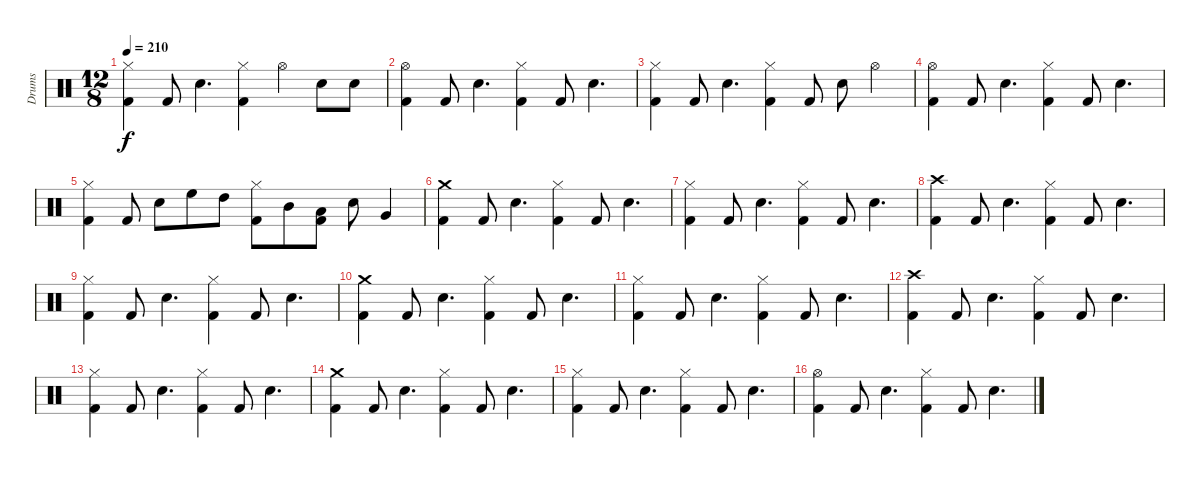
\track ("Drums" "Drums") {instrument percussion}
\staff {score}
\articulation defaults
\ts (12 8)
\tempo 210
\clef neutral
\ks c
("Kick (hit) 2" "Hi-Hat (closed)").4{dy f} "Kick (hit) 2".8 "Snare (hit) 2".4{d} ("Kick (hit) 2" "Hi-Hat (closed)").4 "Hi-Hat (open)".4 "Snare (hit) 2".8 "Snare (hit) 2".8 |
("Kick (hit) 2" "Hi-Hat (open)").4 "Kick (hit) 2".8 "Snare (hit) 2".4{d} ("Kick (hit) 2" "Hi-Hat (closed)").4 "Kick (hit) 2".8 "Snare (hit) 2".4{d} |
("Kick (hit) 2" "Hi-Hat (closed)").4 "Kick (hit) 2".8 "Snare (hit) 2".4{d} ("Kick (hit) 2" "Hi-Hat (closed)").4 "Kick (hit) 2".8 "Snare (hit) 2".8 "Hi-Hat (open)".4 |
("Kick (hit) 2" "Hi-Hat (open)").4 "Kick (hit) 2".8 "Snare (hit) 2".4{d} ("Kick (hit) 2" "Hi-Hat (closed)").4 "Kick (hit) 2".8 "Snare (hit) 2".4{d} |
("Kick (hit) 2" "Hi-Hat (closed)").4 "Kick (hit) 2".8 "Snare (hit) 2".8 "High Floor Tom (hit)".8 "High Tom (hit)".8 ("Kick (hit) 2" "Hi-Hat (closed)").8 "Mid Tom (hit)".8 ("Kick (hit) 2" "Low Tom (hit)").8 "Snare (hit) 2".8 "Very Low Tom (hit)".4 |
("Kick (hit) 2" "Crash medium (hit)").4 "Kick (hit) 2".8 "Snare (hit) 2".4{d} ("Kick (hit) 2" "Hi-Hat (closed)").4 "Kick (hit) 2".8 "Snare (hit) 2".4{d} |
("Kick (hit) 2" "Hi-Hat (closed)").4 "Kick (hit) 2".8 "Snare (hit) 2".4{d} ("Kick (hit) 2" "Hi-Hat (closed)").4 "Kick (hit) 2".8 "Snare (hit) 2".4{d} |
("Kick (hit) 2" "Crash high (hit)").4 "Kick (hit) 2".8 "Snare (hit) 2".4{d} ("Kick (hit) 2" "Hi-Hat (closed)").4 "Kick (hit) 2".8 "Snare (hit) 2".4{d} |
("Kick (hit) 2" "Hi-Hat (closed)").4 "Kick (hit) 2".8 "Snare (hit) 2".4{d} ("Kick (hit) 2" "Hi-Hat (closed)").4 "Kick (hit) 2".8 "Snare (hit) 2".4{d} |
("Kick (hit) 2" "Crash medium (hit)").4 "Kick (hit) 2".8 "Snare (hit) 2".4{d} ("Kick (hit) 2" "Hi-Hat (closed)").4 "Kick (hit) 2".8 "Snare (hit) 2".4{d} |
("Kick (hit) 2" "Hi-Hat (closed)").4 "Kick (hit) 2".8 "Snare (hit) 2".4{d} ("Kick (hit) 2" "Hi-Hat (closed)").4 "Kick (hit) 2".8 "Snare (hit) 2".4{d} |
("Kick (hit) 2" "Crash high (hit)").4 "Kick (hit) 2".8 "Snare (hit) 2".4{d} ("Kick (hit) 2" "Hi-Hat (closed)").4 "Kick (hit) 2".8 "Snare (hit) 2".4{d} |
("Kick (hit) 2" "Hi-Hat (closed)").4 "Kick (hit) 2".8 "Snare (hit) 2".4{d} ("Kick (hit) 2" "Hi-Hat (closed)").4 "Kick (hit) 2".8 "Snare (hit) 2".4{d} |
("Kick (hit) 2" "Crash medium (hit)").4 "Kick (hit) 2".8 "Snare (hit) 2".4{d} ("Kick (hit) 2" "Hi-Hat (closed)").4 "Kick (hit) 2".8 "Snare (hit) 2".4{d} |
("Kick (hit) 2" "Hi-Hat (closed)").4 "Kick (hit) 2".8 "Snare (hit) 2".4{d} ("Kick (hit) 2" "Hi-Hat (closed)").4 "Kick (hit) 2".8 "Snare (hit) 2".4{d} |
("Kick (hit) 2" "Hi-Hat (open)").4 "Kick (hit) 2".8 "Snare (hit) 2".4{d} ("Kick (hit) 2" "Hi-Hat (closed)").4 "Kick (hit) 2".8 "Snare (hit) 2".4{d}
